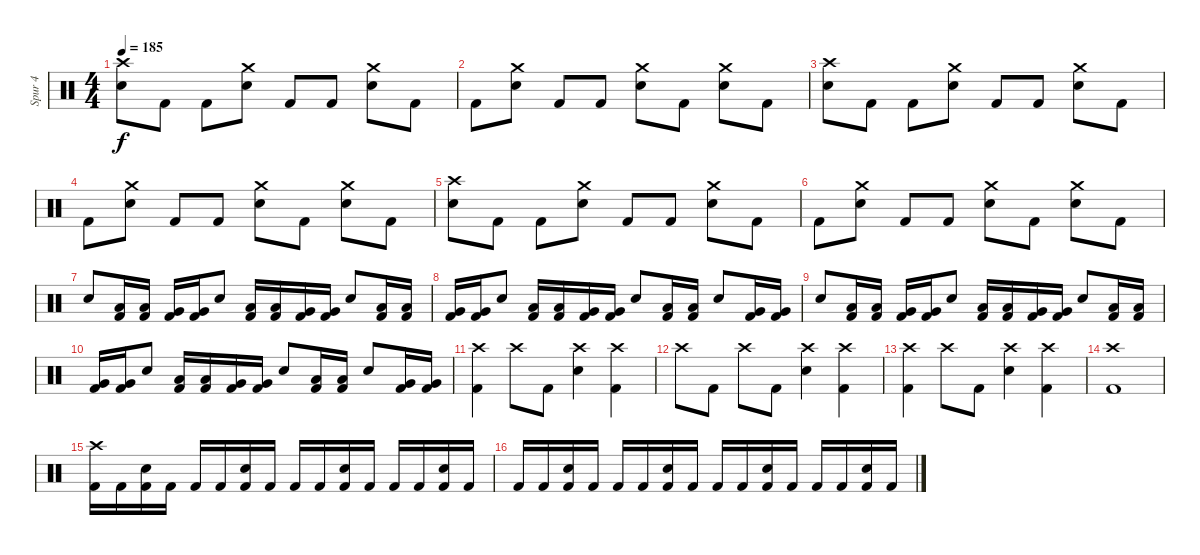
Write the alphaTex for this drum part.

\track ("Spur 4" "Spur 4") {instrument percussion}
\staff {score}
\articulation defaults
\ts (4 4)
\tempo 185
\clef neutral
\ks c
("Crash high (hit)" "Electric Snare (hit)").8{dy f} "Kick (hit) 2".8 "Kick (hit) 2".8 ("Crash medium (hit)" "Electric Snare (hit)").8 "Kick (hit) 2".8 "Kick (hit) 2".8 ("Crash medium (hit)" "Electric Snare (hit)").8 "Kick (hit) 2".8 |
"Kick (hit) 2".8 ("Crash medium (hit)" "Electric Snare (hit)").8 "Kick (hit) 2".8 "Kick (hit) 2".8 ("Crash medium (hit)" "Electric Snare (hit)").8 "Kick (hit) 2".8 ("Crash medium (hit)" "Electric Snare (hit)").8 "Kick (hit) 2".8 |
("Crash high (hit)" "Electric Snare (hit)").8 "Kick (hit) 2".8 "Kick (hit) 2".8 ("Crash medium (hit)" "Electric Snare (hit)").8 "Kick (hit) 2".8 "Kick (hit) 2".8 ("Crash medium (hit)" "Electric Snare (hit)").8 "Kick (hit) 2".8 |
"Kick (hit) 2".8 ("Crash medium (hit)" "Electric Snare (hit)").8 "Kick (hit) 2".8 "Kick (hit) 2".8 ("Crash medium (hit)" "Electric Snare (hit)").8 "Kick (hit) 2".8 ("Crash medium (hit)" "Electric Snare (hit)").8 "Kick (hit) 2".8 |
("Crash high (hit)" "Electric Snare (hit)").8 "Kick (hit) 2".8 "Kick (hit) 2".8 ("Crash medium (hit)" "Electric Snare (hit)").8 "Kick (hit) 2".8 "Kick (hit) 2".8 ("Crash medium (hit)" "Electric Snare (hit)").8 "Kick (hit) 2".8 |
"Kick (hit) 2".8 ("Crash medium (hit)" "Electric Snare (hit)").8 "Kick (hit) 2".8 "Kick (hit) 2".8 ("Crash medium (hit)" "Electric Snare (hit)").8 "Kick (hit) 2".8 ("Crash medium (hit)" "Electric Snare (hit)").8 "Kick (hit) 2".8 |
"Electric Snare (hit)".8 ("Low Tom (hit)" "Kick (hit) 2").16 ("Low Tom (hit)" "Kick (hit) 2").16 ("Very Low Tom (hit)" "Kick (hit) 2").16 ("Very Low Tom (hit)" "Kick (hit) 2").16 "Electric Snare (hit)".8 ("Low Tom (hit)" "Kick (hit) 2").16 ("Low Tom (hit)" "Kick (hit) 2").16 ("Very Low Tom (hit)" "Kick (hit) 2").16 ("Very Low Tom (hit)" "Kick (hit) 2").16 "Electric Snare (hit)".8 ("Low Tom (hit)" "Kick (hit) 2").16 ("Low Tom (hit)" "Kick (hit) 2").16 |
("Very Low Tom (hit)" "Kick (hit) 2").16 ("Very Low Tom (hit)" "Kick (hit) 2").16 "Electric Snare (hit)".8 ("Low Tom (hit)" "Kick (hit) 2").16 ("Low Tom (hit)" "Kick (hit) 2").16 ("Very Low Tom (hit)" "Kick (hit) 2").16 ("Very Low Tom (hit)" "Kick (hit) 2").16 "Electric Snare (hit)".8 ("Low Tom (hit)" "Kick (hit) 2").16 ("Low Tom (hit)" "Kick (hit) 2").16 "Electric Snare (hit)".8 ("Very Low Tom (hit)" "Kick (hit) 2").16 ("Very Low Tom (hit)" "Kick (hit) 2").16 |
"Electric Snare (hit)".8 ("Low Tom (hit)" "Kick (hit) 2").16 ("Low Tom (hit)" "Kick (hit) 2").16 ("Very Low Tom (hit)" "Kick (hit) 2").16 ("Very Low Tom (hit)" "Kick (hit) 2").16 "Electric Snare (hit)".8 ("Low Tom (hit)" "Kick (hit) 2").16 ("Low Tom (hit)" "Kick (hit) 2").16 ("Very Low Tom (hit)" "Kick (hit) 2").16 ("Very Low Tom (hit)" "Kick (hit) 2").16 "Electric Snare (hit)".8 ("Low Tom (hit)" "Kick (hit) 2").16 ("Low Tom (hit)" "Kick (hit) 2").16 |
("Very Low Tom (hit)" "Kick (hit) 2").16 ("Very Low Tom (hit)" "Kick (hit) 2").16 "Electric Snare (hit)".8 ("Low Tom (hit)" "Kick (hit) 2").16 ("Low Tom (hit)" "Kick (hit) 2").16 ("Very Low Tom (hit)" "Kick (hit) 2").16 ("Very Low Tom (hit)" "Kick (hit) 2").16 "Electric Snare (hit)".8 ("Low Tom (hit)" "Kick (hit) 2").16 ("Low Tom (hit)" "Kick (hit) 2").16 "Electric Snare (hit)".8 ("Very Low Tom (hit)" "Kick (hit) 2").16 ("Very Low Tom (hit)" "Kick (hit) 2").16 |
("Crash high (hit)" "Kick (hit) 2").4 "Crash high (hit)".8 "Kick (hit) 2".8 ("Crash high (hit)" "Electric Snare (hit)").4 ("Crash high (hit)" "Kick (hit) 2").4 |
"Crash high (hit)".8 "Kick (hit) 2".8 "Crash high (hit)".8 "Kick (hit) 2".8 ("Crash high (hit)" "Electric Snare (hit)").4 ("Crash high (hit)" "Kick (hit) 2").4 |
("Crash high (hit)" "Kick (hit) 2").4 "Crash high (hit)".8 "Kick (hit) 2".8 ("Crash high (hit)" "Electric Snare (hit)").4 ("Crash high (hit)" "Kick (hit) 2").4 |
("Crash high (hit)" "Kick (hit) 2").1 |
("Crash high (hit)" "Kick (hit) 2").16 "Kick (hit) 2".16 ("Electric Snare (hit)" "Kick (hit) 2").16 "Kick (hit) 2".16 "Kick (hit) 2".16 "Kick (hit) 2".16 ("Electric Snare (hit)" "Kick (hit) 2").16 "Kick (hit) 2".16 "Kick (hit) 2".16 "Kick (hit) 2".16 ("Electric Snare (hit)" "Kick (hit) 2").16 "Kick (hit) 2".16 "Kick (hit) 2".16 "Kick (hit) 2".16 ("Electric Snare (hit)" "Kick (hit) 2").16 "Kick (hit) 2".16 |
"Kick (hit) 2".16 "Kick (hit) 2".16 ("Electric Snare (hit)" "Kick (hit) 2").16 "Kick (hit) 2".16 "Kick (hit) 2".16 "Kick (hit) 2".16 ("Electric Snare (hit)" "Kick (hit) 2").16 "Kick (hit) 2".16 "Kick (hit) 2".16 "Kick (hit) 2".16 ("Electric Snare (hit)" "Kick (hit) 2").16 "Kick (hit) 2".16 "Kick (hit) 2".16 "Kick (hit) 2".16 ("Electric Snare (hit)" "Kick (hit) 2").16 "Kick (hit) 2".16
